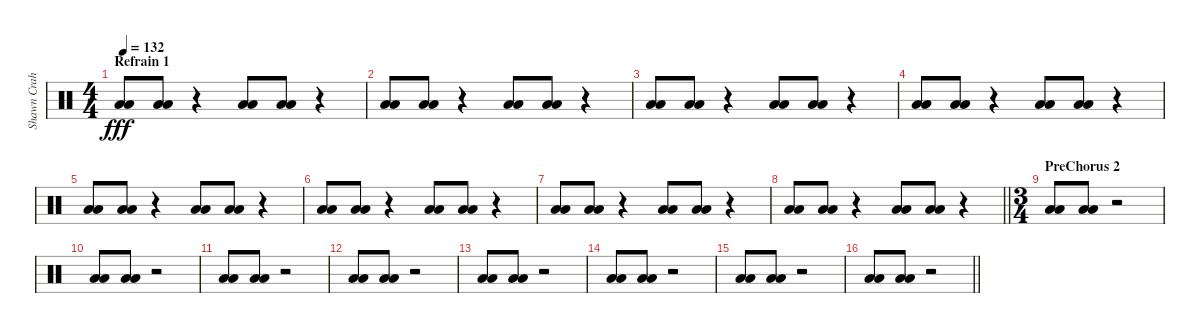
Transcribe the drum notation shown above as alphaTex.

\track ("Shawn Crahan" "Shawn Crah") {instrument percussion}
\staff {score}
\articulation defaults
\ts (4 4)
\section ("" "Refrain 1")
\tempo 132
\clef neutral
\ks c
("Low Floor Tom (hit)" "Low Floor Tom (hit)").8{dy fff} ("Low Floor Tom (hit)" "Low Floor Tom (hit)").8 r.4 ("Low Floor Tom (hit)" "Low Floor Tom (hit)").8 ("Low Floor Tom (hit)" "Low Floor Tom (hit)").8 r.4 |
("Low Floor Tom (hit)" "Low Floor Tom (hit)").8 ("Low Floor Tom (hit)" "Low Floor Tom (hit)").8 r.4 ("Low Floor Tom (hit)" "Low Floor Tom (hit)").8 ("Low Floor Tom (hit)" "Low Floor Tom (hit)").8 r.4 |
("Low Floor Tom (hit)" "Low Floor Tom (hit)").8 ("Low Floor Tom (hit)" "Low Floor Tom (hit)").8 r.4 ("Low Floor Tom (hit)" "Low Floor Tom (hit)").8 ("Low Floor Tom (hit)" "Low Floor Tom (hit)").8 r.4 |
("Low Floor Tom (hit)" "Low Floor Tom (hit)").8 ("Low Floor Tom (hit)" "Low Floor Tom (hit)").8 r.4 ("Low Floor Tom (hit)" "Low Floor Tom (hit)").8 ("Low Floor Tom (hit)" "Low Floor Tom (hit)").8 r.4 |
("Low Floor Tom (hit)" "Low Floor Tom (hit)").8 ("Low Floor Tom (hit)" "Low Floor Tom (hit)").8 r.4 ("Low Floor Tom (hit)" "Low Floor Tom (hit)").8 ("Low Floor Tom (hit)" "Low Floor Tom (hit)").8 r.4 |
("Low Floor Tom (hit)" "Low Floor Tom (hit)").8 ("Low Floor Tom (hit)" "Low Floor Tom (hit)").8 r.4 ("Low Floor Tom (hit)" "Low Floor Tom (hit)").8 ("Low Floor Tom (hit)" "Low Floor Tom (hit)").8 r.4 |
("Low Floor Tom (hit)" "Low Floor Tom (hit)").8 ("Low Floor Tom (hit)" "Low Floor Tom (hit)").8 r.4 ("Low Floor Tom (hit)" "Low Floor Tom (hit)").8 ("Low Floor Tom (hit)" "Low Floor Tom (hit)").8 r.4 |
\barLineRight lightlight
("Low Floor Tom (hit)" "Low Floor Tom (hit)").8 ("Low Floor Tom (hit)" "Low Floor Tom (hit)").8 r.4 ("Low Floor Tom (hit)" "Low Floor Tom (hit)").8 ("Low Floor Tom (hit)" "Low Floor Tom (hit)").8 r.4 |
\ts (3 4)
\section ("" "PreChorus 2")
("Low Floor Tom (hit)" "Low Floor Tom (hit)").8 ("Low Floor Tom (hit)" "Low Floor Tom (hit)").8 r.2 |
("Low Floor Tom (hit)" "Low Floor Tom (hit)").8 ("Low Floor Tom (hit)" "Low Floor Tom (hit)").8 r.2 |
("Low Floor Tom (hit)" "Low Floor Tom (hit)").8 ("Low Floor Tom (hit)" "Low Floor Tom (hit)").8 r.2 |
("Low Floor Tom (hit)" "Low Floor Tom (hit)").8 ("Low Floor Tom (hit)" "Low Floor Tom (hit)").8 r.2 |
("Low Floor Tom (hit)" "Low Floor Tom (hit)").8 ("Low Floor Tom (hit)" "Low Floor Tom (hit)").8 r.2 |
("Low Floor Tom (hit)" "Low Floor Tom (hit)").8 ("Low Floor Tom (hit)" "Low Floor Tom (hit)").8 r.2 |
("Low Floor Tom (hit)" "Low Floor Tom (hit)").8 ("Low Floor Tom (hit)" "Low Floor Tom (hit)").8 r.2 |
\barLineRight lightlight
("Low Floor Tom (hit)" "Low Floor Tom (hit)").8 ("Low Floor Tom (hit)" "Low Floor Tom (hit)").8 r.2
